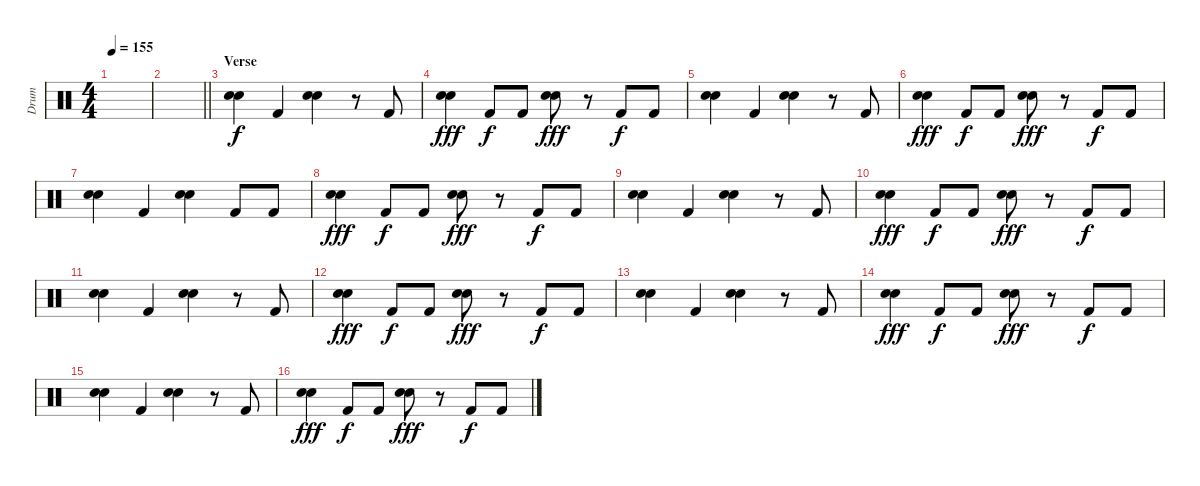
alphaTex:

\track ("Drum" "Drum") {instrument percussion}
\staff {score}
\articulation defaults
\ts (4 4)
\tempo 155
\clef neutral
\ks c
|
\barLineRight lightlight
|
\section ("" "Verse")
("Electric Snare (hit)" "Hand Clap (hit)").4 "Kick (hit) 2".4 ("Electric Snare (hit)" "Hand Clap (hit)").4 r.8 "Kick (hit) 2".8 |
("Electric Snare (hit)" "Hand Clap (hit)").4{dy fff} "Kick (hit) 2".8{dy f} "Kick (hit) 2".8 ("Electric Snare (hit)" "Hand Clap (hit)").8{dy fff} r.8 "Kick (hit) 2".8{dy f} "Kick (hit) 2".8 |
("Electric Snare (hit)" "Hand Clap (hit)").4 "Kick (hit) 2".4 ("Electric Snare (hit)" "Hand Clap (hit)").4 r.8 "Kick (hit) 2".8 |
("Electric Snare (hit)" "Hand Clap (hit)").4{dy fff} "Kick (hit) 2".8{dy f} "Kick (hit) 2".8 ("Electric Snare (hit)" "Hand Clap (hit)").8{dy fff} r.8 "Kick (hit) 2".8{dy f} "Kick (hit) 2".8 |
("Electric Snare (hit)" "Hand Clap (hit)").4 "Kick (hit) 2".4 ("Electric Snare (hit)" "Hand Clap (hit)").4 "Kick (hit) 2".8 "Kick (hit) 2".8 |
("Electric Snare (hit)" "Hand Clap (hit)").4{dy fff} "Kick (hit) 2".8{dy f} "Kick (hit) 2".8 ("Electric Snare (hit)" "Hand Clap (hit)").8{dy fff} r.8 "Kick (hit) 2".8{dy f} "Kick (hit) 2".8 |
("Electric Snare (hit)" "Hand Clap (hit)").4 "Kick (hit) 2".4 ("Electric Snare (hit)" "Hand Clap (hit)").4 r.8 "Kick (hit) 2".8 |
("Electric Snare (hit)" "Hand Clap (hit)").4{dy fff} "Kick (hit) 2".8{dy f} "Kick (hit) 2".8 ("Electric Snare (hit)" "Hand Clap (hit)").8{dy fff} r.8 "Kick (hit) 2".8{dy f} "Kick (hit) 2".8 |
("Electric Snare (hit)" "Hand Clap (hit)").4 "Kick (hit) 2".4 ("Electric Snare (hit)" "Hand Clap (hit)").4 r.8 "Kick (hit) 2".8 |
("Electric Snare (hit)" "Hand Clap (hit)").4{dy fff} "Kick (hit) 2".8{dy f} "Kick (hit) 2".8 ("Electric Snare (hit)" "Hand Clap (hit)").8{dy fff} r.8 "Kick (hit) 2".8{dy f} "Kick (hit) 2".8 |
("Electric Snare (hit)" "Hand Clap (hit)").4 "Kick (hit) 2".4 ("Electric Snare (hit)" "Hand Clap (hit)").4 r.8 "Kick (hit) 2".8 |
("Electric Snare (hit)" "Hand Clap (hit)").4{dy fff} "Kick (hit) 2".8{dy f} "Kick (hit) 2".8 ("Electric Snare (hit)" "Hand Clap (hit)").8{dy fff} r.8 "Kick (hit) 2".8{dy f} "Kick (hit) 2".8 |
("Electric Snare (hit)" "Hand Clap (hit)").4 "Kick (hit) 2".4 ("Electric Snare (hit)" "Hand Clap (hit)").4 r.8 "Kick (hit) 2".8 |
("Electric Snare (hit)" "Hand Clap (hit)").4{dy fff} "Kick (hit) 2".8{dy f} "Kick (hit) 2".8 ("Electric Snare (hit)" "Hand Clap (hit)").8{dy fff} r.8 "Kick (hit) 2".8{dy f} "Kick (hit) 2".8
